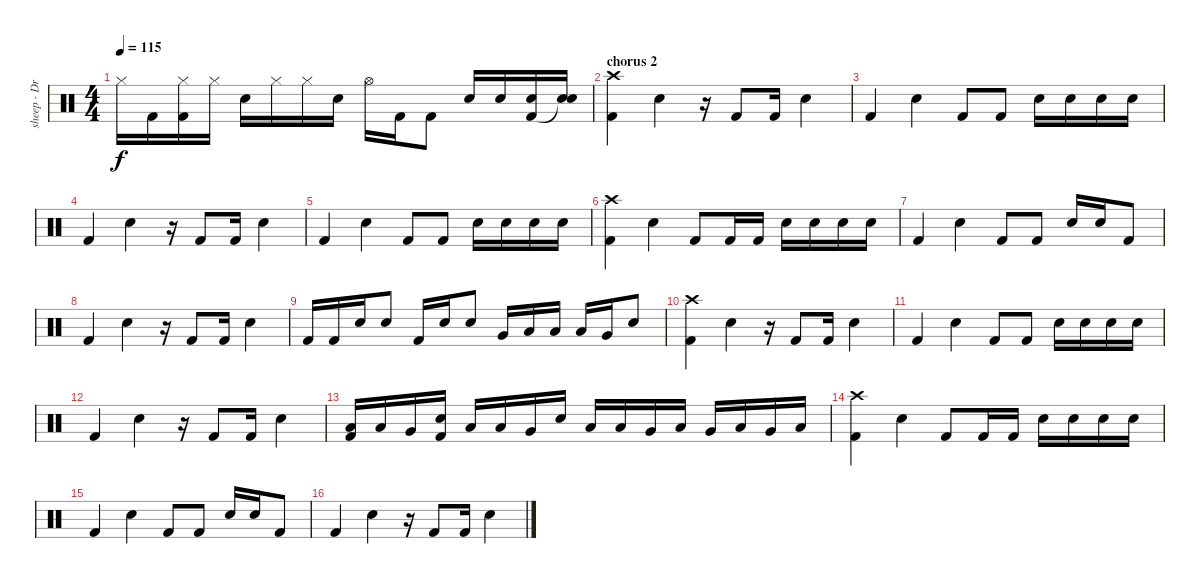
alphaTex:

\track ("sheep - Drum track (guide)" "sheep - Dr") {instrument percussion}
\staff {score}
\articulation defaults
\ts (4 4)
\tempo 115
\clef neutral
\ks c "Hi-Hat (closed)".16{dy f} "Kick (hit) 2".16
("Hi-Hat (closed)" "Kick (hit) 2").16 "Hi-Hat (closed)".16 "Electric Snare (hit)".16 "Hi-Hat (closed)".16 "Hi-Hat (closed)".16 "Electric Snare (hit)".16 "Hi-Hat (open)".16 "Kick (hit) 2".16 "Kick (hit) 2".8 "Electric Snare (hit)".16 "Electric Snare (hit)".16 ("Electric Snare (hit)" "Kick (hit) 2").16 ("Electric Snare (hit)" "Snare (hit)"{t}).16 |
\section ("" "chorus 2")
("Crash high (hit)" "Kick (hit) 2").4 "Electric Snare (hit)".4 r.16 "Kick (hit) 2".8 "Kick (hit) 2".16 "Electric Snare (hit)".4 |
"Kick (hit) 2".4 "Electric Snare (hit)".4 "Kick (hit) 2".8 "Kick (hit) 2".8 "Electric Snare (hit)".16 "Electric Snare (hit)".16 "Electric Snare (hit)".16 "Electric Snare (hit)".16 |
"Kick (hit) 2".4 "Electric Snare (hit)".4 r.16 "Kick (hit) 2".8 "Kick (hit) 2".16 "Electric Snare (hit)".4 |
"Kick (hit) 2".4 "Electric Snare (hit)".4 "Kick (hit) 2".8 "Kick (hit) 2".8 "Electric Snare (hit)".16 "Electric Snare (hit)".16 "Electric Snare (hit)".16 "Electric Snare (hit)".16 |
("Crash high (hit)" "Kick (hit) 2").4 "Electric Snare (hit)".4 "Kick (hit) 2".8 "Kick (hit) 2".16 "Kick (hit) 2".16 "Electric Snare (hit)".16 "Electric Snare (hit)".16 "Electric Snare (hit)".16 "Electric Snare (hit)".16 |
"Kick (hit) 2".4 "Electric Snare (hit)".4 "Kick (hit) 2".8 "Kick (hit) 2".8 "Electric Snare (hit)".16 "Electric Snare (hit)".16 "Kick (hit) 2".8 |
"Kick (hit) 2".4 "Electric Snare (hit)".4 r.16 "Kick (hit) 2".8 "Kick (hit) 2".16 "Electric Snare (hit)".4 |
"Kick (hit) 2".16 "Kick (hit) 2".16 "Electric Snare (hit)".16 "Electric Snare (hit)".8 "Kick (hit) 2".16 "Electric Snare (hit)".16 "Electric Snare (hit)".8 "Very Low Tom (hit)".16 "Low Floor Tom (hit)".16 "Low Tom (hit)".16 "Low Floor Tom (hit)".16 "Very Low Tom (hit)".16 "Electric Snare (hit)".8 |
("Crash high (hit)" "Kick (hit) 2").4 "Electric Snare (hit)".4 r.16 "Kick (hit) 2".8 "Kick (hit) 2".16 "Electric Snare (hit)".4 |
"Kick (hit) 2".4 "Electric Snare (hit)".4 "Kick (hit) 2".8 "Kick (hit) 2".8 "Electric Snare (hit)".16 "Electric Snare (hit)".16 "Electric Snare (hit)".16 "Electric Snare (hit)".16 |
"Kick (hit) 2".4 "Electric Snare (hit)".4 r.16 "Kick (hit) 2".8 "Kick (hit) 2".16 "Electric Snare (hit)".4 |
("Low Floor Tom (hit)" "Kick (hit) 2").16 "Low Tom (hit)".16 "Very Low Tom (hit)".16 ("Electric Snare (hit)" "Kick (hit) 2").16 "Low Floor Tom (hit)".16 "Low Tom (hit)".16 "Very Low Tom (hit)".16 "Electric Snare (hit)".16 "Low Floor Tom (hit)".16 "Low Tom (hit)".16 "Very Low Tom (hit)".16 "Low Tom (hit)".16 "Very Low Tom (hit)".16 "Low Tom (hit)".16 "Very Low Tom (hit)".16 "Low Tom (hit)".16 |
("Crash high (hit)" "Kick (hit) 2").4 "Electric Snare (hit)".4 "Kick (hit) 2".8 "Kick (hit) 2".16 "Kick (hit) 2".16 "Electric Snare (hit)".16 "Electric Snare (hit)".16 "Electric Snare (hit)".16 "Electric Snare (hit)".16 |
"Kick (hit) 2".4 "Electric Snare (hit)".4 "Kick (hit) 2".8 "Kick (hit) 2".8 "Electric Snare (hit)".16 "Electric Snare (hit)".16 "Kick (hit) 2".8 |
"Kick (hit) 2".4 "Electric Snare (hit)".4 r.16 "Kick (hit) 2".8 "Kick (hit) 2".16 "Electric Snare (hit)".4
